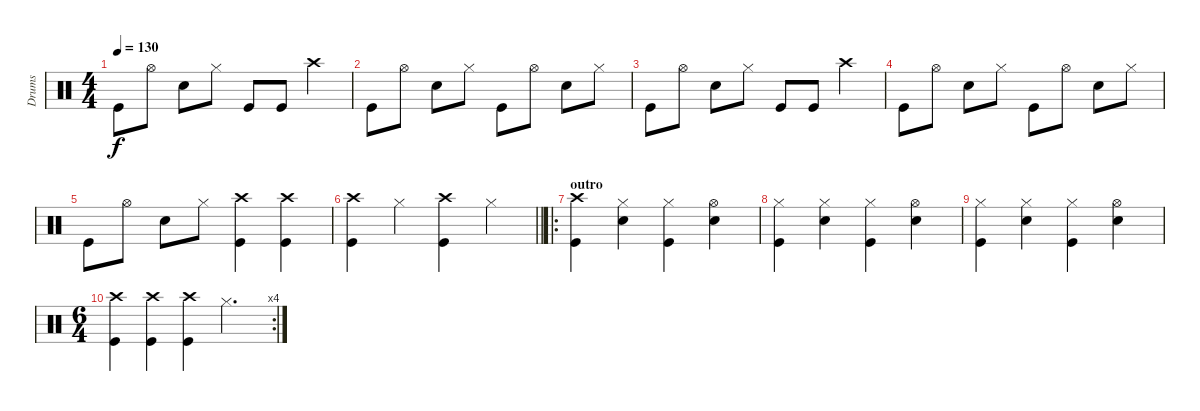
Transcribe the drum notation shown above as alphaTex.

\track ("Drums" "Drums") {instrument percussion}
\staff {score}
\articulation defaults
\ts (4 4)
\tempo 130
\clef neutral
\ks c "Kick (hit)".8{dy f} "Hi-Hat (open)".8 "Snare (hit) 2".8 "Hi-Hat (closed)".8 "Kick (hit)".8 "Kick (hit)".8 "Crash high (hit)".4
|
"Kick (hit)".8 "Hi-Hat (open)".8 "Snare (hit) 2".8 "Hi-Hat (closed)".8 "Kick (hit)".8 "Hi-Hat (open)".8 "Snare (hit) 2".8 "Hi-Hat (closed)".8 |
"Kick (hit)".8 "Hi-Hat (open)".8 "Snare (hit) 2".8 "Hi-Hat (closed)".8 "Kick (hit)".8 "Kick (hit)".8 "Crash high (hit)".4 |
"Kick (hit)".8 "Hi-Hat (open)".8 "Snare (hit) 2".8 "Hi-Hat (closed)".8 "Kick (hit)".8 "Hi-Hat (open)".8 "Snare (hit) 2".8 "Hi-Hat (closed)".8 |
"Kick (hit)".8 "Hi-Hat (open)".8 "Snare (hit) 2".8 "Hi-Hat (closed)".8 ("Kick (hit)" "Crash high (hit)").4 ("Crash high (hit)" "Kick (hit)").4 |
\barLineRight lightlight
("Crash high (hit)" "Kick (hit)").4 "Hi-Hat (closed)".4 ("Kick (hit)" "Crash high (hit)").4 "Hi-Hat (closed)".4 |
\ro
\section ("" "outro")
("Kick (hit)" "Crash high (hit)").4 ("Hi-Hat (closed)" "Snare (hit) 2").4 ("Hi-Hat (closed)" "Kick (hit)").4 ("Hi-Hat (open)" "Snare (hit) 2").4 |
("Kick (hit)" "Hi-Hat (closed)").4 ("Hi-Hat (closed)" "Snare (hit) 2").4 ("Hi-Hat (closed)" "Kick (hit)").4 ("Hi-Hat (open)" "Snare (hit) 2").4 |
("Kick (hit)" "Hi-Hat (closed)").4 ("Hi-Hat (closed)" "Snare (hit) 2").4 ("Hi-Hat (closed)" "Kick (hit)").4 ("Hi-Hat (open)" "Snare (hit) 2").4 |
\rc 4
\ts (6 4)
("Kick (hit)" "Crash high (hit)").4 ("Kick (hit)" "Crash high (hit)").4 ("Kick (hit)" "Crash high (hit)").4 "Hi-Hat (closed)".2{d}
